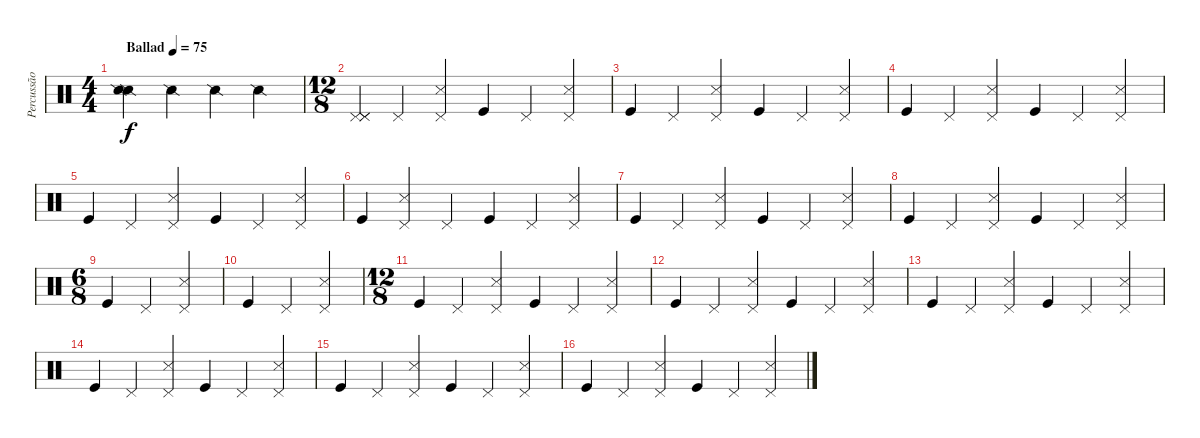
\track ("Percussão" "Percussão") {instrument percussion}
\staff {score}
\articulation defaults
\ts (4 4)
\tempo (75 "Ballad")
\clef neutral
\ks c
("Snare (side stick) 2" "Snare (side stick) 2").4{dy f} "Snare (side stick) 2".4 "Snare (side stick) 2".4 "Snare (side stick) 2".4 |
\ts (12 8)
("Pedal Hi-Hat (hit)" "Pedal Hi-Hat (hit)" "Pedal Hi-Hat (hit)").4 "Pedal Hi-Hat (hit)".4 ("Pedal Hi-Hat (hit)" "Metronome (hit)").4 "Kick (hit)".4 "Pedal Hi-Hat (hit)".4 ("Pedal Hi-Hat (hit)" "Metronome (hit)").4 |
"Kick (hit)".4 "Pedal Hi-Hat (hit)".4 ("Pedal Hi-Hat (hit)" "Metronome (hit)").4 "Kick (hit)".4 "Pedal Hi-Hat (hit)".4 ("Pedal Hi-Hat (hit)" "Metronome (hit)").4 |
"Kick (hit)".4 "Pedal Hi-Hat (hit)".4 ("Pedal Hi-Hat (hit)" "Metronome (hit)").4 "Kick (hit)".4 "Pedal Hi-Hat (hit)".4 ("Pedal Hi-Hat (hit)" "Metronome (hit)").4 |
"Kick (hit)".4 "Pedal Hi-Hat (hit)".4 ("Pedal Hi-Hat (hit)" "Metronome (hit)").4 "Kick (hit)".4 "Pedal Hi-Hat (hit)".4 ("Pedal Hi-Hat (hit)" "Metronome (hit)").4 |
"Kick (hit)".4 ("Pedal Hi-Hat (hit)" "Metronome (hit)").4 "Pedal Hi-Hat (hit)".4 "Kick (hit)".4 "Pedal Hi-Hat (hit)".4 ("Pedal Hi-Hat (hit)" "Metronome (hit)").4 |
"Kick (hit)".4 "Pedal Hi-Hat (hit)".4 ("Pedal Hi-Hat (hit)" "Metronome (hit)").4 "Kick (hit)".4 "Pedal Hi-Hat (hit)".4 ("Pedal Hi-Hat (hit)" "Metronome (hit)").4 |
"Kick (hit)".4 "Pedal Hi-Hat (hit)".4 ("Pedal Hi-Hat (hit)" "Metronome (hit)").4 "Kick (hit)".4 "Pedal Hi-Hat (hit)".4 ("Pedal Hi-Hat (hit)" "Metronome (hit)").4 |
\ts (6 8)
"Kick (hit)".4 "Pedal Hi-Hat (hit)".4 ("Pedal Hi-Hat (hit)" "Metronome (hit)").4 |
"Kick (hit)".4 "Pedal Hi-Hat (hit)".4 ("Pedal Hi-Hat (hit)" "Metronome (hit)").4 |
\ts (12 8)
"Kick (hit)".4 "Pedal Hi-Hat (hit)".4 ("Pedal Hi-Hat (hit)" "Metronome (hit)").4 "Kick (hit)".4 "Pedal Hi-Hat (hit)".4 ("Pedal Hi-Hat (hit)" "Metronome (hit)").4 |
"Kick (hit)".4 "Pedal Hi-Hat (hit)".4 ("Pedal Hi-Hat (hit)" "Metronome (hit)").4 "Kick (hit)".4 "Pedal Hi-Hat (hit)".4 ("Pedal Hi-Hat (hit)" "Metronome (hit)").4 |
"Kick (hit)".4 "Pedal Hi-Hat (hit)".4 ("Pedal Hi-Hat (hit)" "Metronome (hit)").4 "Kick (hit)".4 "Pedal Hi-Hat (hit)".4 ("Pedal Hi-Hat (hit)" "Metronome (hit)").4 |
"Kick (hit)".4 "Pedal Hi-Hat (hit)".4 ("Pedal Hi-Hat (hit)" "Metronome (hit)").4 "Kick (hit)".4 "Pedal Hi-Hat (hit)".4 ("Pedal Hi-Hat (hit)" "Metronome (hit)").4 |
"Kick (hit)".4 "Pedal Hi-Hat (hit)".4 ("Pedal Hi-Hat (hit)" "Metronome (hit)").4 "Kick (hit)".4 "Pedal Hi-Hat (hit)".4 ("Pedal Hi-Hat (hit)" "Metronome (hit)").4 |
"Kick (hit)".4 "Pedal Hi-Hat (hit)".4 ("Pedal Hi-Hat (hit)" "Metronome (hit)").4 "Kick (hit)".4 "Pedal Hi-Hat (hit)".4 ("Pedal Hi-Hat (hit)" "Metronome (hit)").4
